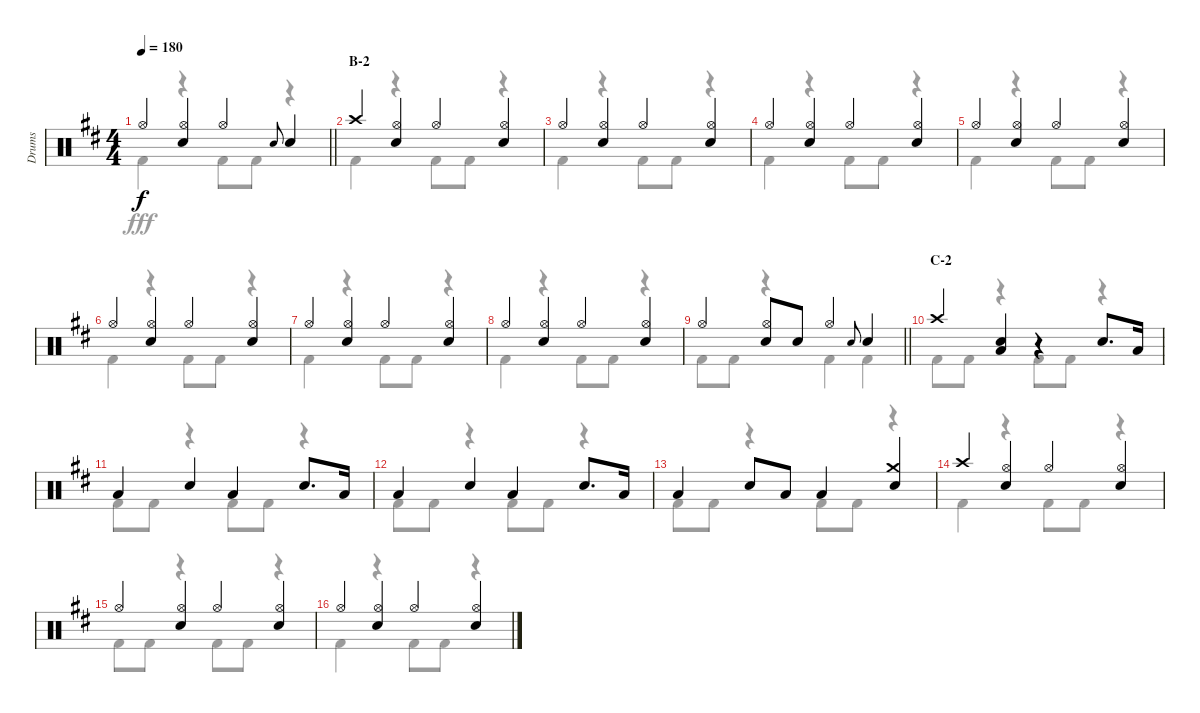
\track ("Drums" "Drums") {instrument percussion}
\staff {score}
\articulation defaults
\voice
\ts (4 4)
\tempo 180
\clef neutral
\barLineRight lightlight
\ks d "Hi-Hat (open)".4{dy f}
("Hi-Hat (open)" "Snare (hit) 2").4 "Hi-Hat (open)".4 "Snare (hit) 2".8{gr onbeat} "Snare (hit) 2".4 |
\section ("" "B-2")
"Crash high (hit)".4 ("Hi-Hat (open)" "Snare (hit) 2").4 "Hi-Hat (open)".4 ("Hi-Hat (open)" "Snare (hit) 2").4 |
"Hi-Hat (open)".4 ("Hi-Hat (open)" "Snare (hit) 2").4 "Hi-Hat (open)".4 ("Hi-Hat (open)" "Snare (hit) 2").4 |
"Hi-Hat (open)".4 ("Hi-Hat (open)" "Snare (hit) 2").4 "Hi-Hat (open)".4 ("Hi-Hat (open)" "Snare (hit) 2").4 |
"Hi-Hat (open)".4 ("Hi-Hat (open)" "Snare (hit) 2").4 "Hi-Hat (open)".4 ("Hi-Hat (open)" "Snare (hit) 2").4 |
"Hi-Hat (open)".4 ("Hi-Hat (open)" "Snare (hit) 2").4 "Hi-Hat (open)".4 ("Hi-Hat (open)" "Snare (hit) 2").4 |
"Hi-Hat (open)".4 ("Hi-Hat (open)" "Snare (hit) 2").4 "Hi-Hat (open)".4 ("Hi-Hat (open)" "Snare (hit) 2").4 |
"Hi-Hat (open)".4 ("Hi-Hat (open)" "Snare (hit) 2").4 "Hi-Hat (open)".4 ("Hi-Hat (open)" "Snare (hit) 2").4 |
\barLineRight lightlight "Hi-Hat (open)".4
("Hi-Hat (open)" "Snare (hit) 2").8 "Snare (hit) 2".8 "Hi-Hat (open)".4 "Snare (hit) 2".8{gr onbeat} "Snare (hit) 2".4 |
\section ("" "C-2")
"Crash high (hit)".4 ("Snare (hit) 2" "Low Tom (hit)").4 r.4 "Snare (hit) 2".8{d} "Low Tom (hit)".16 |
"Low Tom (hit)".4 "Snare (hit) 2".4 "Low Tom (hit)".4 "Snare (hit) 2".8{d} "Low Tom (hit)".16 |
"Low Tom (hit)".4 "Snare (hit) 2".4 "Low Tom (hit)".4 "Snare (hit) 2".8{d} "Low Tom (hit)".16 |
"Low Tom (hit)".4 "Snare (hit) 2".8 "Low Tom (hit)".8 "Low Tom (hit)".4 ("Crash medium (hit)" "Snare (hit) 2").4 |
"Crash high (hit)".4 ("Hi-Hat (open)" "Snare (hit) 2").4 "Hi-Hat (open)".4 ("Hi-Hat (open)" "Snare (hit) 2").4 |
"Hi-Hat (open)".4 ("Hi-Hat (open)" "Snare (hit) 2").4 "Hi-Hat (open)".4 ("Hi-Hat (open)" "Snare (hit) 2").4 |
"Hi-Hat (open)".4 ("Hi-Hat (open)" "Snare (hit) 2").4 "Hi-Hat (open)".4 ("Hi-Hat (open)" "Snare (hit) 2").4
\voice
\clef neutral
\ottava regular
\simile none
\barLineRight lightlight
\ks d "Kick (hit) 2".4{dy fff}
r.4 "Kick (hit) 2".8 "Kick (hit) 2".8 r.4 |
"Kick (hit) 2".4 r.4 "Kick (hit) 2".8 "Kick (hit) 2".8 r.4 |
"Kick (hit) 2".4 r.4 "Kick (hit) 2".8 "Kick (hit) 2".8 r.4 |
"Kick (hit) 2".4 r.4 "Kick (hit) 2".8 "Kick (hit) 2".8 r.4 |
"Kick (hit) 2".4 r.4 "Kick (hit) 2".8 "Kick (hit) 2".8 r.4 |
"Kick (hit) 2".4 r.4 "Kick (hit) 2".8 "Kick (hit) 2".8 r.4 |
"Kick (hit) 2".4 r.4 "Kick (hit) 2".8 "Kick (hit) 2".8 r.4 |
"Kick (hit) 2".4 r.4 "Kick (hit) 2".8 "Kick (hit) 2".8 r.4 |
\barLineRight lightlight "Kick (hit) 2".8 "Kick (hit) 2".8
r.4 "Kick (hit) 2".4 "Kick (hit) 2".4 |
"Kick (hit) 2".8 "Kick (hit) 2".8 r.4 "Kick (hit) 2".8 "Kick (hit) 2".8 r.4 |
"Kick (hit) 2".8 "Kick (hit) 2".8 r.4 "Kick (hit) 2".8 "Kick (hit) 2".8 r.4 |
"Kick (hit) 2".8 "Kick (hit) 2".8 r.4 "Kick (hit) 2".8 "Kick (hit) 2".8 r.4 |
"Kick (hit) 2".8 "Kick (hit) 2".8 r.4 "Kick (hit) 2".8 "Kick (hit) 2".8 r.4 |
"Kick (hit) 2".4 r.4 "Kick (hit) 2".8 "Kick (hit) 2".8 r.4 |
"Kick (hit) 2".8 "Kick (hit) 2".8 r.4 "Kick (hit) 2".8 "Kick (hit) 2".8 r.4 |
"Kick (hit) 2".4 r.4 "Kick (hit) 2".8 "Kick (hit) 2".8 r.4
